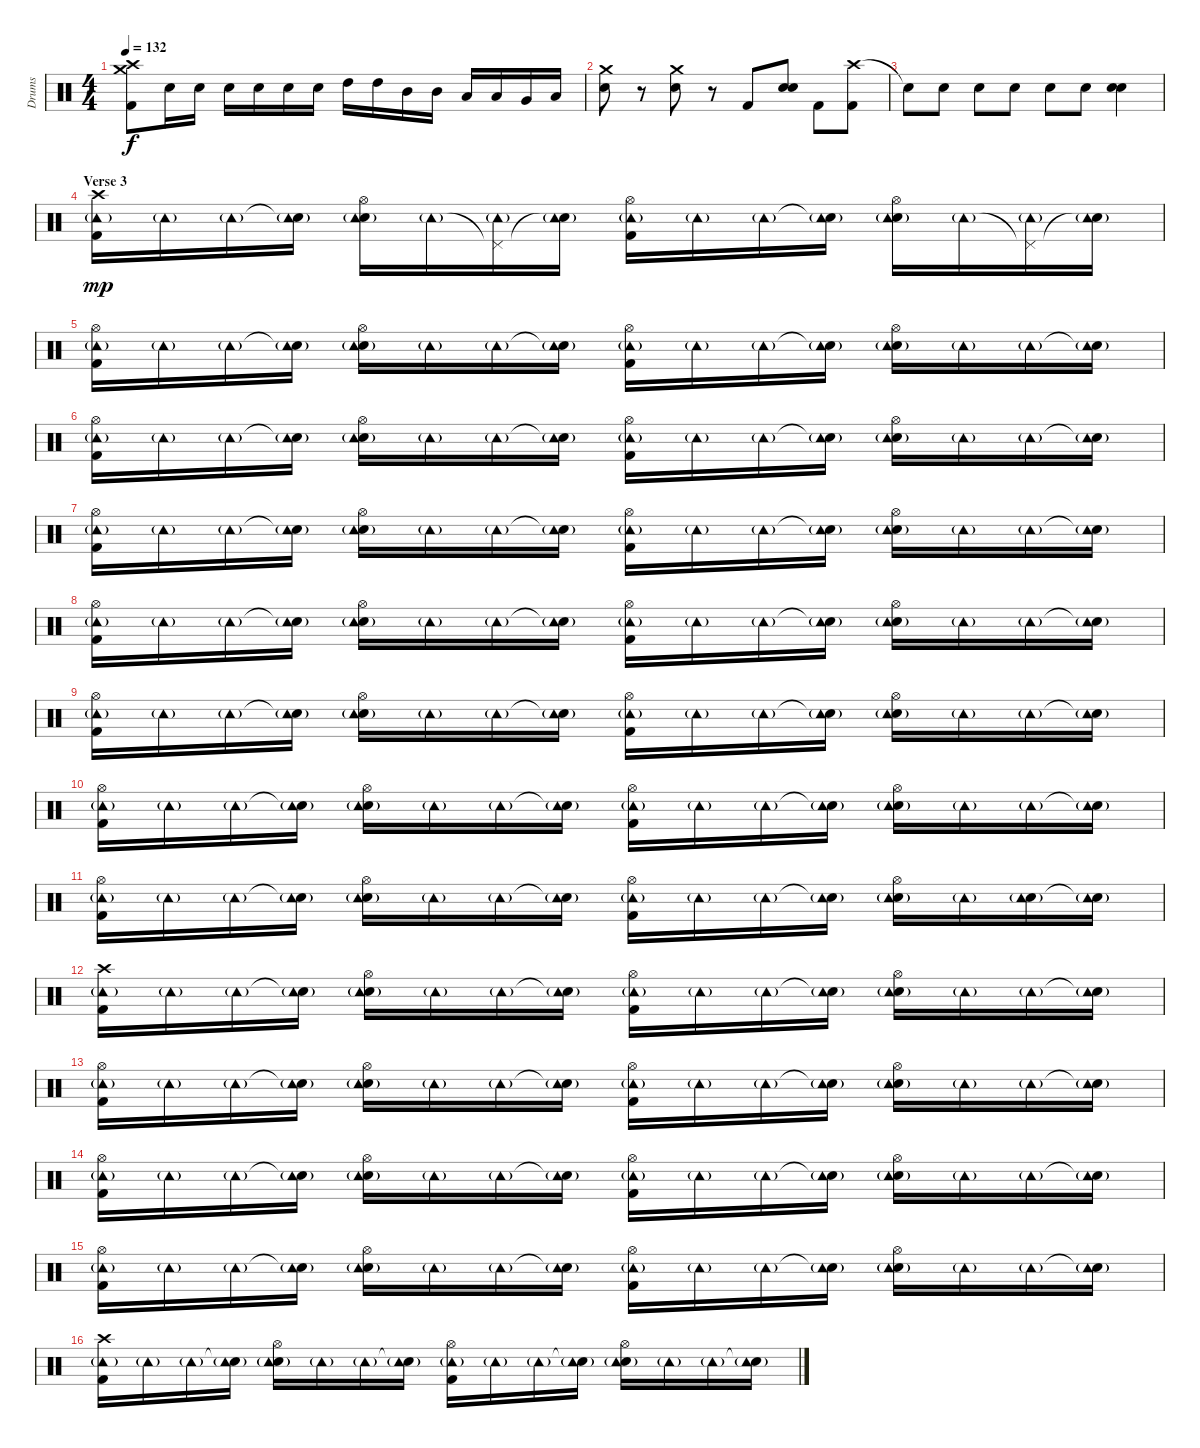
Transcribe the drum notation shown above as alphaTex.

\track ("Drums" "Drums") {instrument percussion}
\staff {score}
\articulation defaults
\ts (4 4)
\tempo 132
\clef neutral
\ks c
("Crash high (hit)" "Crash medium (hit)" "Kick (hit) 2").8{dy f} "Snare (hit) 2".16 "Snare (hit) 2".16 "Snare (hit) 2".16 "Snare (hit) 2".16 "Snare (hit) 2".16 "Snare (hit) 2".16 "High Tom (hit)".16 "High Tom (hit)".16 "Mid Tom (hit)".16 "Mid Tom (hit)".16 "Low Tom (hit)".16 "Low Tom (hit)".16 "Very Low Tom (hit)".16 "Low Floor Tom (hit)".16 |
("Crash medium (hit)" "Snare (hit) 2").8 r.8 ("Crash medium (hit)" "Snare (hit) 2").8 r.8 "Kick (hit) 2".8 ("Snare (hit) 2" "Snare (hit) 2").8 "Kick (hit) 2".8 ("Crash high (hit)" "Kick (hit) 2").8 |
"Snare (hit) 2"{t}.8 "Snare (hit) 2".8 "Snare (hit) 2".8 "Snare (hit) 2".8 "Snare (hit) 2".8 "Snare (hit) 2".8 ("Snare (hit) 2" "Snare (hit) 2").4{bd 120} |
\section ("" "Verse 3")
("Crash high (hit)" "Kick (hit) 2" "Tambourine (hit)"{g}).16{dy mp} "Tambourine (hit)"{g}.16 "Tambourine (hit)"{g}.16 ("Snare (hit)"{t} "Tambourine (hit)"{g}).16 ("Hi-Hat (open)" "Snare (hit) 2" "Tambourine (hit)"{g}).16 "Tambourine (hit)"{g}.16 ("Pedal Hi-Hat (hit)"{t} "Tambourine (hit)"{g}).16 ("Snare (hit)"{t} "Tambourine (hit)"{g}).16 ("Hi-Hat (open)" "Kick (hit) 2" "Tambourine (hit)"{g}).16 "Tambourine (hit)"{g}.16 "Tambourine (hit)"{g}.16 ("Snare (hit)"{t} "Tambourine (hit)"{g}).16 ("Hi-Hat (open)" "Snare (hit) 2" "Tambourine (hit)"{g}).16 "Tambourine (hit)"{g}.16 ("Pedal Hi-Hat (hit)"{t} "Tambourine (hit)"{g}).16 ("Snare (hit)"{t} "Tambourine (hit)"{g}).16 |
("Hi-Hat (open)" "Kick (hit) 2" "Tambourine (hit)"{g}).16 "Tambourine (hit)"{g}.16 "Tambourine (hit)"{g}.16 ("Snare (hit)"{t} "Tambourine (hit)"{g}).16 ("Hi-Hat (open)" "Snare (hit) 2" "Tambourine (hit)"{g}).16 "Tambourine (hit)"{g}.16 "Tambourine (hit)"{g}.16 ("Snare (hit)"{t} "Tambourine (hit)"{g}).16 ("Hi-Hat (open)" "Kick (hit) 2" "Tambourine (hit)"{g}).16 "Tambourine (hit)"{g}.16 "Tambourine (hit)"{g}.16 ("Snare (hit)"{t} "Tambourine (hit)"{g}).16 ("Hi-Hat (open)" "Snare (hit) 2" "Tambourine (hit)"{g}).16 "Tambourine (hit)"{g}.16 "Tambourine (hit)"{g}.16 ("Snare (hit)"{t} "Tambourine (hit)"{g}).16 |
("Hi-Hat (open)" "Kick (hit) 2" "Tambourine (hit)"{g}).16 "Tambourine (hit)"{g}.16 "Tambourine (hit)"{g}.16 ("Snare (hit)"{t} "Tambourine (hit)"{g}).16 ("Hi-Hat (open)" "Snare (hit) 2" "Tambourine (hit)"{g}).16 "Tambourine (hit)"{g}.16 "Tambourine (hit)"{g}.16 ("Snare (hit)"{t} "Tambourine (hit)"{g}).16 ("Hi-Hat (open)" "Kick (hit) 2" "Tambourine (hit)"{g}).16 "Tambourine (hit)"{g}.16 "Tambourine (hit)"{g}.16 ("Snare (hit)"{t} "Tambourine (hit)"{g}).16 ("Hi-Hat (open)" "Snare (hit) 2" "Tambourine (hit)"{g}).16 "Tambourine (hit)"{g}.16 "Tambourine (hit)"{g}.16 ("Snare (hit)"{t} "Tambourine (hit)"{g}).16 |
("Hi-Hat (open)" "Kick (hit) 2" "Tambourine (hit)"{g}).16 "Tambourine (hit)"{g}.16 "Tambourine (hit)"{g}.16 ("Snare (hit)"{t} "Tambourine (hit)"{g}).16 ("Hi-Hat (open)" "Snare (hit) 2" "Tambourine (hit)"{g}).16 "Tambourine (hit)"{g}.16 "Tambourine (hit)"{g}.16 ("Snare (hit)"{t} "Tambourine (hit)"{g}).16 ("Hi-Hat (open)" "Kick (hit) 2" "Tambourine (hit)"{g}).16 "Tambourine (hit)"{g}.16 "Tambourine (hit)"{g}.16 ("Snare (hit)"{t} "Tambourine (hit)"{g}).16 ("Hi-Hat (open)" "Snare (hit) 2" "Tambourine (hit)"{g}).16 "Tambourine (hit)"{g}.16 "Tambourine (hit)"{g}.16 ("Snare (hit)"{t} "Tambourine (hit)"{g}).16 |
("Hi-Hat (open)" "Kick (hit) 2" "Tambourine (hit)"{g}).16 "Tambourine (hit)"{g}.16 "Tambourine (hit)"{g}.16 ("Snare (hit)"{t} "Tambourine (hit)"{g}).16 ("Hi-Hat (open)" "Snare (hit) 2" "Tambourine (hit)"{g}).16 "Tambourine (hit)"{g}.16 "Tambourine (hit)"{g}.16 ("Snare (hit)"{t} "Tambourine (hit)"{g}).16 ("Hi-Hat (open)" "Kick (hit) 2" "Tambourine (hit)"{g}).16 "Tambourine (hit)"{g}.16 "Tambourine (hit)"{g}.16 ("Snare (hit)"{t} "Tambourine (hit)"{g}).16 ("Hi-Hat (open)" "Snare (hit) 2" "Tambourine (hit)"{g}).16 "Tambourine (hit)"{g}.16 "Tambourine (hit)"{g}.16 ("Snare (hit)"{t} "Tambourine (hit)"{g}).16 |
("Hi-Hat (open)" "Kick (hit) 2" "Tambourine (hit)"{g}).16 "Tambourine (hit)"{g}.16 "Tambourine (hit)"{g}.16 ("Snare (hit)"{t} "Tambourine (hit)"{g}).16 ("Hi-Hat (open)" "Snare (hit) 2" "Tambourine (hit)"{g}).16 "Tambourine (hit)"{g}.16 "Tambourine (hit)"{g}.16 ("Snare (hit)"{t} "Tambourine (hit)"{g}).16 ("Hi-Hat (open)" "Kick (hit) 2" "Tambourine (hit)"{g}).16 "Tambourine (hit)"{g}.16 "Tambourine (hit)"{g}.16 ("Snare (hit)"{t} "Tambourine (hit)"{g}).16 ("Hi-Hat (open)" "Snare (hit) 2" "Tambourine (hit)"{g}).16 "Tambourine (hit)"{g}.16 "Tambourine (hit)"{g}.16 ("Snare (hit)"{t} "Tambourine (hit)"{g}).16 |
("Hi-Hat (open)" "Kick (hit) 2" "Tambourine (hit)"{g}).16 "Tambourine (hit)"{g}.16 "Tambourine (hit)"{g}.16 ("Snare (hit)"{t} "Tambourine (hit)"{g}).16 ("Hi-Hat (open)" "Snare (hit) 2" "Tambourine (hit)"{g}).16 "Tambourine (hit)"{g}.16 "Tambourine (hit)"{g}.16 ("Snare (hit)"{t} "Tambourine (hit)"{g}).16 ("Hi-Hat (open)" "Kick (hit) 2" "Tambourine (hit)"{g}).16 "Tambourine (hit)"{g}.16 "Tambourine (hit)"{g}.16 ("Snare (hit)"{t} "Tambourine (hit)"{g}).16 ("Hi-Hat (open)" "Snare (hit) 2" "Tambourine (hit)"{g}).16 "Tambourine (hit)"{g}.16 "Tambourine (hit)"{g}.16 ("Snare (hit)"{t} "Tambourine (hit)"{g}).16 |
("Hi-Hat (open)" "Kick (hit) 2" "Tambourine (hit)"{g}).16 "Tambourine (hit)"{g}.16 "Tambourine (hit)"{g}.16 ("Snare (hit)"{t} "Tambourine (hit)"{g}).16 ("Hi-Hat (open)" "Snare (hit) 2" "Tambourine (hit)"{g}).16 "Tambourine (hit)"{g}.16 "Tambourine (hit)"{g}.16 ("Snare (hit)"{t} "Tambourine (hit)"{g}).16 ("Hi-Hat (open)" "Kick (hit) 2" "Tambourine (hit)"{g}).16 "Tambourine (hit)"{g}.16 "Tambourine (hit)"{g}.16 ("Snare (hit)"{t} "Tambourine (hit)"{g}).16 ("Hi-Hat (open)" "Snare (hit) 2" "Tambourine (hit)"{g}).16 "Tambourine (hit)"{g}.16 ("Snare (hit) 2" "Tambourine (hit)"{g}).16 ("Snare (hit)"{t} "Tambourine (hit)"{g}).16 |
("Crash high (hit)" "Kick (hit) 2" "Tambourine (hit)"{g}).16 "Tambourine (hit)"{g}.16 "Tambourine (hit)"{g}.16 ("Snare (hit)"{t} "Tambourine (hit)"{g}).16 ("Hi-Hat (open)" "Snare (hit) 2" "Tambourine (hit)"{g}).16 "Tambourine (hit)"{g}.16 "Tambourine (hit)"{g}.16 ("Snare (hit)"{t} "Tambourine (hit)"{g}).16 ("Hi-Hat (open)" "Kick (hit) 2" "Tambourine (hit)"{g}).16 "Tambourine (hit)"{g}.16 "Tambourine (hit)"{g}.16 ("Snare (hit)"{t} "Tambourine (hit)"{g}).16 ("Hi-Hat (open)" "Snare (hit) 2" "Tambourine (hit)"{g}).16 "Tambourine (hit)"{g}.16 "Tambourine (hit)"{g}.16 ("Snare (hit)"{t} "Tambourine (hit)"{g}).16 |
("Hi-Hat (open)" "Kick (hit) 2" "Tambourine (hit)"{g}).16 "Tambourine (hit)"{g}.16 "Tambourine (hit)"{g}.16 ("Snare (hit)"{t} "Tambourine (hit)"{g}).16 ("Hi-Hat (open)" "Snare (hit) 2" "Tambourine (hit)"{g}).16 "Tambourine (hit)"{g}.16 "Tambourine (hit)"{g}.16 ("Snare (hit)"{t} "Tambourine (hit)"{g}).16 ("Hi-Hat (open)" "Kick (hit) 2" "Tambourine (hit)"{g}).16 "Tambourine (hit)"{g}.16 "Tambourine (hit)"{g}.16 ("Snare (hit)"{t} "Tambourine (hit)"{g}).16 ("Hi-Hat (open)" "Snare (hit) 2" "Tambourine (hit)"{g}).16 "Tambourine (hit)"{g}.16 "Tambourine (hit)"{g}.16 ("Snare (hit)"{t} "Tambourine (hit)"{g}).16 |
("Hi-Hat (open)" "Kick (hit) 2" "Tambourine (hit)"{g}).16 "Tambourine (hit)"{g}.16 "Tambourine (hit)"{g}.16 ("Snare (hit)"{t} "Tambourine (hit)"{g}).16 ("Hi-Hat (open)" "Snare (hit) 2" "Tambourine (hit)"{g}).16 "Tambourine (hit)"{g}.16 "Tambourine (hit)"{g}.16 ("Snare (hit)"{t} "Tambourine (hit)"{g}).16 ("Hi-Hat (open)" "Kick (hit) 2" "Tambourine (hit)"{g}).16 "Tambourine (hit)"{g}.16 "Tambourine (hit)"{g}.16 ("Snare (hit)"{t} "Tambourine (hit)"{g}).16 ("Hi-Hat (open)" "Snare (hit) 2" "Tambourine (hit)"{g}).16 "Tambourine (hit)"{g}.16 "Tambourine (hit)"{g}.16 ("Snare (hit)"{t} "Tambourine (hit)"{g}).16 |
("Hi-Hat (open)" "Kick (hit) 2" "Tambourine (hit)"{g}).16 "Tambourine (hit)"{g}.16 "Tambourine (hit)"{g}.16 ("Snare (hit)"{t} "Tambourine (hit)"{g}).16 ("Hi-Hat (open)" "Snare (hit) 2" "Tambourine (hit)"{g}).16 "Tambourine (hit)"{g}.16 "Tambourine (hit)"{g}.16 ("Snare (hit)"{t} "Tambourine (hit)"{g}).16 ("Hi-Hat (open)" "Kick (hit) 2" "Tambourine (hit)"{g}).16 "Tambourine (hit)"{g}.16 "Tambourine (hit)"{g}.16 ("Snare (hit)"{t} "Tambourine (hit)"{g}).16 ("Hi-Hat (open)" "Snare (hit) 2" "Tambourine (hit)"{g}).16 "Tambourine (hit)"{g}.16 "Tambourine (hit)"{g}.16 ("Snare (hit)"{t} "Tambourine (hit)"{g}).16 |
("Crash high (hit)" "Kick (hit) 2" "Tambourine (hit)"{g}).16 "Tambourine (hit)"{g}.16 "Tambourine (hit)"{g}.16 ("Snare (hit)"{t} "Tambourine (hit)"{g}).16 ("Hi-Hat (open)" "Snare (hit) 2" "Tambourine (hit)"{g}).16 "Tambourine (hit)"{g}.16 "Tambourine (hit)"{g}.16 ("Snare (hit)"{t} "Tambourine (hit)"{g}).16 ("Hi-Hat (open)" "Kick (hit) 2" "Tambourine (hit)"{g}).16 "Tambourine (hit)"{g}.16 "Tambourine (hit)"{g}.16 ("Snare (hit)"{t} "Tambourine (hit)"{g}).16 ("Hi-Hat (open)" "Snare (hit) 2" "Tambourine (hit)"{g}).16 "Tambourine (hit)"{g}.16 "Tambourine (hit)"{g}.16 ("Snare (hit)"{t} "Tambourine (hit)"{g}).16
